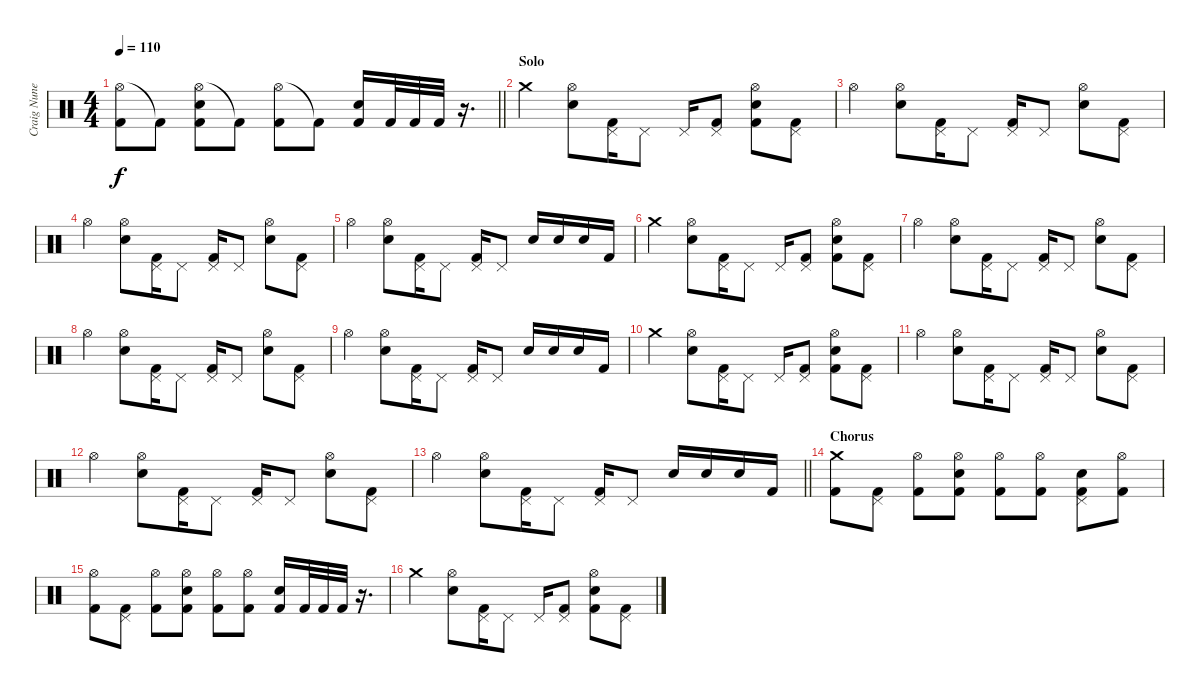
\track ("Craig Nunenmacher" "Craig Nune") {instrument percussion}
\staff {score}
\articulation defaults
\ts (4 4)
\tempo 110
\clef neutral
\barLineRight lightlight
\ks c
("Hi-Hat (open)" "Kick (hit) 2").8{dy f} "Kick (hit) 2"{t}.8 ("Hi-Hat (open)" "Snare (hit) 2" "Kick (hit) 2").8 "Kick (hit) 2"{t}.8 ("Hi-Hat (open)" "Kick (hit) 2").8 "Kick (hit) 2"{t}.8 ("Snare (hit) 2" "Kick (hit) 2").16 "Kick (hit) 2".32 "Kick (hit) 2".32 "Kick (hit) 2".32 r.16{d} |
\section ("" "Solo")
"Crash medium (hit)".4 ("Hi-Hat (open)" "Snare (hit) 2").8 ("Pedal Hi-Hat (hit)" "Kick (hit) 2").16 "Pedal Hi-Hat (hit)".8 "Pedal Hi-Hat (hit)".16 ("Pedal Hi-Hat (hit)" "Kick (hit) 2").8 ("Hi-Hat (open)" "Snare (hit) 2" "Kick (hit) 2").8 ("Pedal Hi-Hat (hit)" "Kick (hit) 2").8 |
"Hi-Hat (open)".4 ("Hi-Hat (open)" "Snare (hit) 2").8 ("Pedal Hi-Hat (hit)" "Kick (hit) 2").16 "Pedal Hi-Hat (hit)".8 ("Pedal Hi-Hat (hit)" "Kick (hit) 2").16 "Pedal Hi-Hat (hit)".8 ("Hi-Hat (open)" "Snare (hit) 2").8 ("Pedal Hi-Hat (hit)" "Kick (hit) 2").8 |
"Hi-Hat (open)".4 ("Hi-Hat (open)" "Snare (hit) 2").8 ("Pedal Hi-Hat (hit)" "Kick (hit) 2").16 "Pedal Hi-Hat (hit)".8 ("Pedal Hi-Hat (hit)" "Kick (hit) 2").16 "Pedal Hi-Hat (hit)".8 ("Hi-Hat (open)" "Snare (hit) 2").8 ("Pedal Hi-Hat (hit)" "Kick (hit) 2").8 |
"Hi-Hat (open)".4 ("Hi-Hat (open)" "Snare (hit) 2").8 ("Pedal Hi-Hat (hit)" "Kick (hit) 2").16 "Pedal Hi-Hat (hit)".8 ("Pedal Hi-Hat (hit)" "Kick (hit) 2").16 "Pedal Hi-Hat (hit)".8 "Snare (hit) 2".16 "Snare (hit) 2".16 "Snare (hit) 2".16 "Kick (hit) 2".16 |
"Crash medium (hit)".4 ("Hi-Hat (open)" "Snare (hit) 2").8 ("Pedal Hi-Hat (hit)" "Kick (hit) 2").16 "Pedal Hi-Hat (hit)".8 "Pedal Hi-Hat (hit)".16 ("Pedal Hi-Hat (hit)" "Kick (hit) 2").8 ("Hi-Hat (open)" "Snare (hit) 2" "Kick (hit) 2").8 ("Pedal Hi-Hat (hit)" "Kick (hit) 2").8 |
"Hi-Hat (open)".4 ("Hi-Hat (open)" "Snare (hit) 2").8 ("Pedal Hi-Hat (hit)" "Kick (hit) 2").16 "Pedal Hi-Hat (hit)".8 ("Pedal Hi-Hat (hit)" "Kick (hit) 2").16 "Pedal Hi-Hat (hit)".8 ("Hi-Hat (open)" "Snare (hit) 2").8 ("Pedal Hi-Hat (hit)" "Kick (hit) 2").8 |
"Hi-Hat (open)".4 ("Hi-Hat (open)" "Snare (hit) 2").8 ("Pedal Hi-Hat (hit)" "Kick (hit) 2").16 "Pedal Hi-Hat (hit)".8 ("Pedal Hi-Hat (hit)" "Kick (hit) 2").16 "Pedal Hi-Hat (hit)".8 ("Hi-Hat (open)" "Snare (hit) 2").8 ("Pedal Hi-Hat (hit)" "Kick (hit) 2").8 |
"Hi-Hat (open)".4 ("Hi-Hat (open)" "Snare (hit) 2").8 ("Pedal Hi-Hat (hit)" "Kick (hit) 2").16 "Pedal Hi-Hat (hit)".8 ("Pedal Hi-Hat (hit)" "Kick (hit) 2").16 "Pedal Hi-Hat (hit)".8 "Snare (hit) 2".16 "Snare (hit) 2".16 "Snare (hit) 2".16 "Kick (hit) 2".16 |
"Crash medium (hit)".4 ("Hi-Hat (open)" "Snare (hit) 2").8 ("Pedal Hi-Hat (hit)" "Kick (hit) 2").16 "Pedal Hi-Hat (hit)".8 "Pedal Hi-Hat (hit)".16 ("Pedal Hi-Hat (hit)" "Kick (hit) 2").8 ("Hi-Hat (open)" "Snare (hit) 2" "Kick (hit) 2").8 ("Pedal Hi-Hat (hit)" "Kick (hit) 2").8 |
"Hi-Hat (open)".4 ("Hi-Hat (open)" "Snare (hit) 2").8 ("Pedal Hi-Hat (hit)" "Kick (hit) 2").16 "Pedal Hi-Hat (hit)".8 ("Pedal Hi-Hat (hit)" "Kick (hit) 2").16 "Pedal Hi-Hat (hit)".8 ("Hi-Hat (open)" "Snare (hit) 2").8 ("Pedal Hi-Hat (hit)" "Kick (hit) 2").8 |
"Hi-Hat (open)".4 ("Hi-Hat (open)" "Snare (hit) 2").8 ("Pedal Hi-Hat (hit)" "Kick (hit) 2").16 "Pedal Hi-Hat (hit)".8 ("Pedal Hi-Hat (hit)" "Kick (hit) 2").16 "Pedal Hi-Hat (hit)".8 ("Hi-Hat (open)" "Snare (hit) 2").8 ("Pedal Hi-Hat (hit)" "Kick (hit) 2").8 |
\barLineRight lightlight "Hi-Hat (open)".4
("Hi-Hat (open)" "Snare (hit) 2").8 ("Pedal Hi-Hat (hit)" "Kick (hit) 2").16 "Pedal Hi-Hat (hit)".8 ("Pedal Hi-Hat (hit)" "Kick (hit) 2").16 "Pedal Hi-Hat (hit)".8 "Snare (hit) 2".16 "Snare (hit) 2".16 "Snare (hit) 2".16 "Kick (hit) 2".16 |
\section ("" "Chorus")
("Crash medium (hit)" "Kick (hit) 2").8 ("Pedal Hi-Hat (hit)" "Kick (hit) 2").8 ("Hi-Hat (open)" "Kick (hit) 2").8 ("Hi-Hat (open)" "Snare (hit) 2" "Kick (hit) 2").8 ("Hi-Hat (open)" "Kick (hit) 2").8 ("Hi-Hat (open)" "Kick (hit) 2").8 ("Pedal Hi-Hat (hit)" "Snare (hit) 2" "Kick (hit) 2").8 ("Hi-Hat (open)" "Kick (hit) 2").8 |
("Hi-Hat (open)" "Kick (hit) 2").8 ("Pedal Hi-Hat (hit)" "Kick (hit) 2").8 ("Hi-Hat (open)" "Kick (hit) 2").8 ("Hi-Hat (open)" "Snare (hit) 2" "Kick (hit) 2").8 ("Hi-Hat (open)" "Kick (hit) 2").8 ("Hi-Hat (open)" "Kick (hit) 2").8 ("Snare (hit) 2" "Kick (hit) 2").16 "Kick (hit) 2".32 "Kick (hit) 2".32 "Kick (hit) 2".32 r.16{d} |
"Crash medium (hit)".4 ("Hi-Hat (open)" "Snare (hit) 2").8 ("Pedal Hi-Hat (hit)" "Kick (hit) 2").16 "Pedal Hi-Hat (hit)".8 "Pedal Hi-Hat (hit)".16 ("Pedal Hi-Hat (hit)" "Kick (hit) 2").8 ("Hi-Hat (open)" "Snare (hit) 2" "Kick (hit) 2").8 ("Pedal Hi-Hat (hit)" "Kick (hit) 2").8
